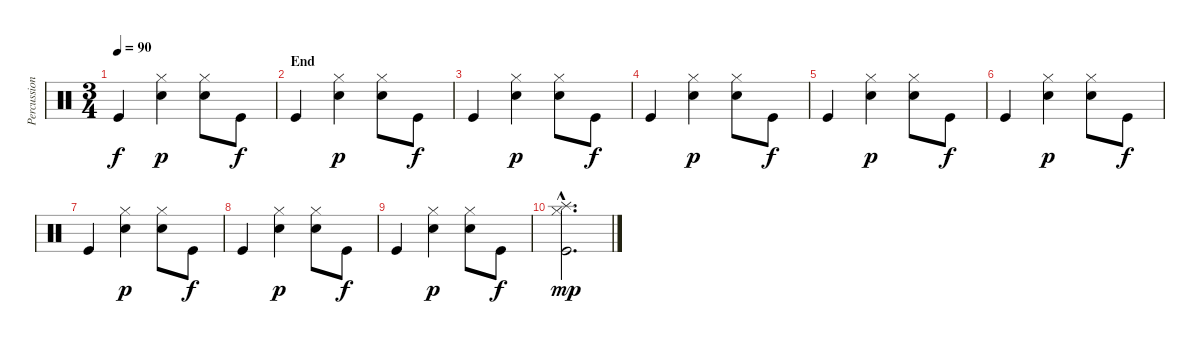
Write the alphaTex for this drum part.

\track ("Percussion" "Percussion") {instrument percussion}
\staff {score}
\articulation defaults
\ts (3 4)
\tempo 90
\clef neutral
\ks c "Kick (hit)".4{dy f}
("Hi-Hat (closed)" "Electric Snare (hit)").4{dy p} ("Hi-Hat (closed)" "Electric Snare (hit)").8 "Kick (hit)".8{dy f} |
\section ("" "End")
"Kick (hit)".4 ("Hi-Hat (closed)" "Electric Snare (hit)").4{dy p} ("Hi-Hat (closed)" "Electric Snare (hit)").8 "Kick (hit)".8{dy f} |
"Kick (hit)".4 ("Hi-Hat (closed)" "Electric Snare (hit)").4{dy p} ("Hi-Hat (closed)" "Electric Snare (hit)").8 "Kick (hit)".8{dy f} |
"Kick (hit)".4 ("Hi-Hat (closed)" "Electric Snare (hit)").4{dy p} ("Hi-Hat (closed)" "Electric Snare (hit)").8 "Kick (hit)".8{dy f} |
"Kick (hit)".4 ("Hi-Hat (closed)" "Electric Snare (hit)").4{dy p} ("Hi-Hat (closed)" "Electric Snare (hit)").8 "Kick (hit)".8{dy f} |
"Kick (hit)".4 ("Hi-Hat (closed)" "Electric Snare (hit)").4{dy p} ("Hi-Hat (closed)" "Electric Snare (hit)").8 "Kick (hit)".8{dy f} |
"Kick (hit)".4 ("Hi-Hat (closed)" "Electric Snare (hit)").4{dy p} ("Hi-Hat (closed)" "Electric Snare (hit)").8 "Kick (hit)".8{dy f} |
"Kick (hit)".4 ("Hi-Hat (closed)" "Electric Snare (hit)").4{dy p} ("Hi-Hat (closed)" "Electric Snare (hit)").8 "Kick (hit)".8{dy f} |
"Kick (hit)".4 ("Hi-Hat (closed)" "Electric Snare (hit)").4{dy p} ("Hi-Hat (closed)" "Electric Snare (hit)").8 "Kick (hit)".8{dy f} |
("Hi-Hat (closed)"{hac} "Splash (hit)"{hac} "Kick (hit)"{hac}).2{d dy mp}
